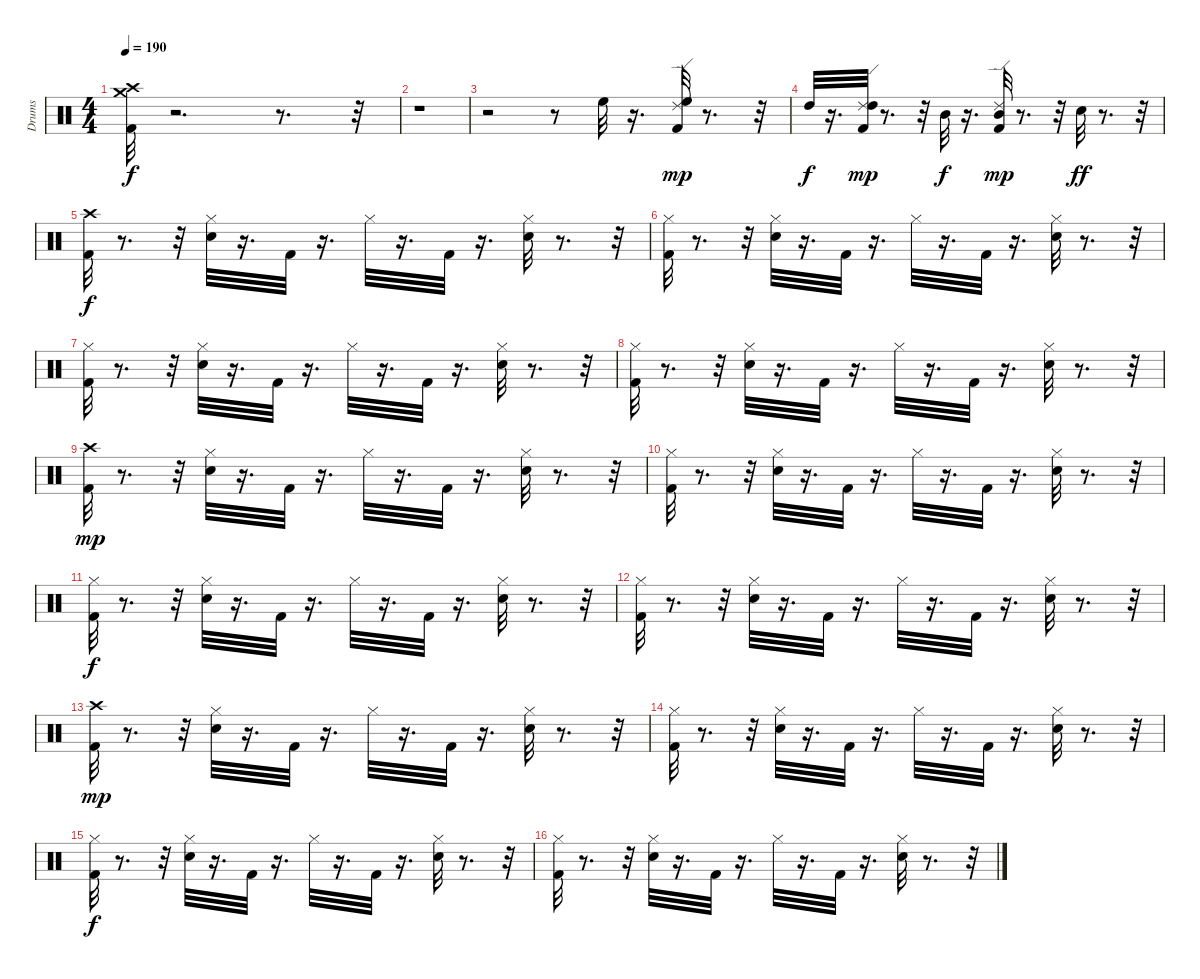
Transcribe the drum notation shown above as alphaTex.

\track ("Drums" "Drums") {instrument percussion}
\staff {score}
\articulation defaults
\ts (4 4)
\tempo 190
\clef neutral
\ks c
("Kick (hit) 2" "Crash high (hit)" "Crash medium (hit)").32{dy f} r.2{d} r.8{d} r.32 |
r.1 |
r.2 r.8 "High Floor Tom (hit)".32 r.16{d} ("Kick (hit) 2" "Ride (edge) 2" "High Floor Tom (hit)").32{dy mp} r.8{d} r.32 |
"High Tom (hit)".32{dy f} r.16{d} ("Kick (hit) 2" "Ride (edge) 2" "High Tom (hit)").32{dy mp} r.8{d} r.32 "Mid Tom (hit)".32{dy f} r.16{d} ("Kick (hit) 2" "Ride (edge) 2" "Mid Tom (hit)").32{dy mp} r.8{d} r.32 "Snare (hit) 2".32{dy ff} r.8{d} r.32 |
("Crash high (hit)" "Kick (hit) 2").32{dy f} r.8{d} r.32 ("Hi-Hat (closed)" "Snare (hit) 2").32 r.16{d} "Kick (hit) 2".32 r.16{d} "Hi-Hat (closed)".32 r.16{d} "Kick (hit) 2".32 r.16{d} ("Hi-Hat (closed)" "Snare (hit) 2").32 r.8{d} r.32 |
("Hi-Hat (closed)" "Kick (hit) 2").32 r.8{d} r.32 ("Snare (hit) 2" "Hi-Hat (closed)").32 r.16{d} "Kick (hit) 2".32 r.16{d} "Hi-Hat (closed)".32 r.16{d} "Kick (hit) 2".32 r.16{d} ("Snare (hit) 2" "Hi-Hat (closed)").32 r.8{d} r.32 |
("Kick (hit) 2" "Hi-Hat (closed)").32 r.8{d} r.32 ("Snare (hit) 2" "Hi-Hat (closed)").32 r.16{d} "Kick (hit) 2".32 r.16{d} "Hi-Hat (closed)".32 r.16{d} "Kick (hit) 2".32 r.16{d} ("Snare (hit) 2" "Hi-Hat (closed)").32 r.8{d} r.32 |
("Kick (hit) 2" "Hi-Hat (closed)").32 r.8{d} r.32 ("Snare (hit) 2" "Hi-Hat (closed)").32 r.16{d} "Kick (hit) 2".32 r.16{d} "Hi-Hat (closed)".32 r.16{d} "Kick (hit) 2".32 r.16{d} ("Snare (hit) 2" "Hi-Hat (closed)").32 r.8{d} r.32 |
("Crash high (hit)" "Kick (hit) 2").32{dy mp} r.8{d} r.32 ("Hi-Hat (closed)" "Snare (hit) 2").32 r.16{d} "Kick (hit) 2".32 r.16{d} "Hi-Hat (closed)".32 r.16{d} "Kick (hit) 2".32 r.16{d} ("Hi-Hat (closed)" "Snare (hit) 2").32 r.8{d} r.32 |
("Hi-Hat (closed)" "Kick (hit) 2").32 r.8{d} r.32 ("Hi-Hat (closed)" "Snare (hit) 2").32 r.16{d} "Kick (hit) 2".32 r.16{d} "Hi-Hat (closed)".32 r.16{d} "Kick (hit) 2".32 r.16{d} ("Hi-Hat (closed)" "Snare (hit) 2").32 r.8{d} r.32 |
("Kick (hit) 2" "Hi-Hat (closed)").32{dy f} r.8{d} r.32 ("Snare (hit) 2" "Hi-Hat (closed)").32 r.16{d} "Kick (hit) 2".32 r.16{d} "Hi-Hat (closed)".32 r.16{d} "Kick (hit) 2".32 r.16{d} ("Snare (hit) 2" "Hi-Hat (closed)").32 r.8{d} r.32 |
("Kick (hit) 2" "Hi-Hat (closed)").32 r.8{d} r.32 ("Snare (hit) 2" "Hi-Hat (closed)").32 r.16{d} "Kick (hit) 2".32 r.16{d} "Hi-Hat (closed)".32 r.16{d} "Kick (hit) 2".32 r.16{d} ("Snare (hit) 2" "Hi-Hat (closed)").32 r.8{d} r.32 |
("Crash high (hit)" "Kick (hit) 2").32{dy mp} r.8{d} r.32 ("Hi-Hat (closed)" "Snare (hit) 2").32 r.16{d} "Kick (hit) 2".32 r.16{d} "Hi-Hat (closed)".32 r.16{d} "Kick (hit) 2".32 r.16{d} ("Hi-Hat (closed)" "Snare (hit) 2").32 r.8{d} r.32 |
("Hi-Hat (closed)" "Kick (hit) 2").32 r.8{d} r.32 ("Hi-Hat (closed)" "Snare (hit) 2").32 r.16{d} "Kick (hit) 2".32 r.16{d} "Hi-Hat (closed)".32 r.16{d} "Kick (hit) 2".32 r.16{d} ("Hi-Hat (closed)" "Snare (hit) 2").32 r.8{d} r.32 |
("Kick (hit) 2" "Hi-Hat (closed)").32{dy f} r.8{d} r.32 ("Snare (hit) 2" "Hi-Hat (closed)").32 r.16{d} "Kick (hit) 2".32 r.16{d} "Hi-Hat (closed)".32 r.16{d} "Kick (hit) 2".32 r.16{d} ("Snare (hit) 2" "Hi-Hat (closed)").32 r.8{d} r.32 |
("Kick (hit) 2" "Hi-Hat (closed)").32 r.8{d} r.32 ("Snare (hit) 2" "Hi-Hat (closed)").32 r.16{d} "Kick (hit) 2".32 r.16{d} "Hi-Hat (closed)".32 r.16{d} "Kick (hit) 2".32 r.16{d} ("Snare (hit) 2" "Hi-Hat (closed)").32 r.8{d} r.32
